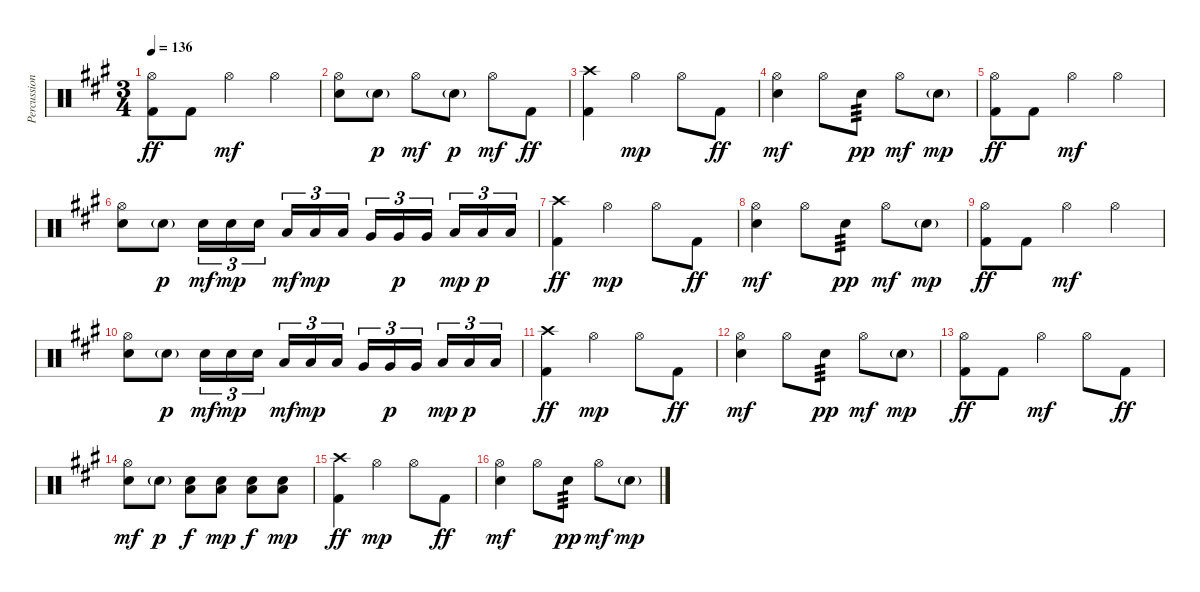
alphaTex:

\track ("Percussion" "Percussion") {solo instrument percussion}
\staff {score}
\articulation defaults
\ts (3 4)
\tempo 136
\clef neutral
\ks a
("Hi-Hat (open)" "Kick (hit) 2").8{dy ff} "Kick (hit) 2".8 "Hi-Hat (open)".4{dy mf} "Hi-Hat (open)".4 |
("Hi-Hat (open)" "Snare (hit) 2").8 "Snare (hit) 2"{g}.8{dy p} "Hi-Hat (open)".8{dy mf} "Snare (hit) 2"{g}.8{dy p} "Hi-Hat (open)".8{dy mf} "Kick (hit) 2".8{dy ff} |
("Crash high (hit)" "Kick (hit) 2").4 "Hi-Hat (open)".4{dy mp} "Hi-Hat (open)".8 "Kick (hit) 2".8{dy ff} |
("Hi-Hat (open)" "Snare (hit) 2").4{dy mf} "Hi-Hat (open)".8 "Snare (hit) 2".8{tp 3 dy pp} "Hi-Hat (open)".8{dy mf} "Snare (hit) 2"{g}.8{dy mp} |
("Hi-Hat (open)" "Kick (hit) 2").8{dy ff} "Kick (hit) 2".8 "Hi-Hat (open)".4{dy mf} "Hi-Hat (open)".4 |
("Hi-Hat (open)" "Snare (hit) 2").8 "Snare (hit) 2"{g}.8{dy p} "Snare (hit) 2".16{tu (3 2) dy mf} "Snare (hit) 2".16{tu (3 2) dy mp} "Snare (hit) 2".16{tu (3 2) beam splitsecondary} "Low Tom (hit)".16{tu (3 2) dy mf} "Low Tom (hit)".16{tu (3 2) dy mp} "Low Tom (hit)".16{tu (3 2)} "Very Low Tom (hit)".16{tu (3 2)} "Very Low Tom (hit)".16{tu (3 2) dy p} "Very Low Tom (hit)".16{tu (3 2) beam splitsecondary} "Low Floor Tom (hit)".16{tu (3 2) dy mp} "Low Floor Tom (hit)".16{tu (3 2) dy p} "Low Floor Tom (hit)".16{tu (3 2)} |
("Crash high (hit)" "Kick (hit) 2").4{dy ff} "Hi-Hat (open)".4{dy mp} "Hi-Hat (open)".8 "Kick (hit) 2".8{dy ff} |
("Hi-Hat (open)" "Snare (hit) 2").4{dy mf} "Hi-Hat (open)".8 "Snare (hit) 2".8{tp 3 dy pp} "Hi-Hat (open)".8{dy mf} "Snare (hit) 2"{g}.8{dy mp} |
("Hi-Hat (open)" "Kick (hit) 2").8{dy ff} "Kick (hit) 2".8 "Hi-Hat (open)".4{dy mf} "Hi-Hat (open)".4 |
("Hi-Hat (open)" "Snare (hit) 2").8 "Snare (hit) 2"{g}.8{dy p} "Snare (hit) 2".16{tu (3 2) dy mf} "Snare (hit) 2".16{tu (3 2) dy mp} "Snare (hit) 2".16{tu (3 2) beam splitsecondary} "Low Tom (hit)".16{tu (3 2) dy mf} "Low Tom (hit)".16{tu (3 2) dy mp} "Low Tom (hit)".16{tu (3 2)} "Very Low Tom (hit)".16{tu (3 2)} "Very Low Tom (hit)".16{tu (3 2) dy p} "Very Low Tom (hit)".16{tu (3 2) beam splitsecondary} "Low Floor Tom (hit)".16{tu (3 2) dy mp} "Low Floor Tom (hit)".16{tu (3 2) dy p} "Low Floor Tom (hit)".16{tu (3 2)} |
("Crash high (hit)" "Kick (hit) 2").4{dy ff} "Hi-Hat (open)".4{dy mp} "Hi-Hat (open)".8 "Kick (hit) 2".8{dy ff} |
("Hi-Hat (open)" "Snare (hit) 2").4{dy mf} "Hi-Hat (open)".8 "Snare (hit) 2".8{tp 3 dy pp} "Hi-Hat (open)".8{dy mf} "Snare (hit) 2"{g}.8{dy mp} |
("Hi-Hat (open)" "Kick (hit) 2").8{dy ff} "Kick (hit) 2".8 "Hi-Hat (open)".4{dy mf} "Hi-Hat (open)".8 "Kick (hit) 2".8{dy ff} |
("Hi-Hat (open)" "Snare (hit) 2").8{dy mf} "Snare (hit) 2"{g}.8{dy p} ("Low Floor Tom (hit)" "Snare (hit) 2").8{dy f} ("Low Floor Tom (hit)" "Snare (hit) 2").8{dy mp} ("Low Floor Tom (hit)" "Snare (hit) 2").8{dy f} ("Low Floor Tom (hit)" "Snare (hit) 2").8{dy mp} |
("Crash high (hit)" "Kick (hit) 2").4{dy ff} "Hi-Hat (open)".4{dy mp} "Hi-Hat (open)".8 "Kick (hit) 2".8{dy ff} |
("Hi-Hat (open)" "Snare (hit) 2").4{dy mf} "Hi-Hat (open)".8 "Snare (hit) 2".8{tp 3 dy pp} "Hi-Hat (open)".8{dy mf} "Snare (hit) 2"{g}.8{dy mp}
